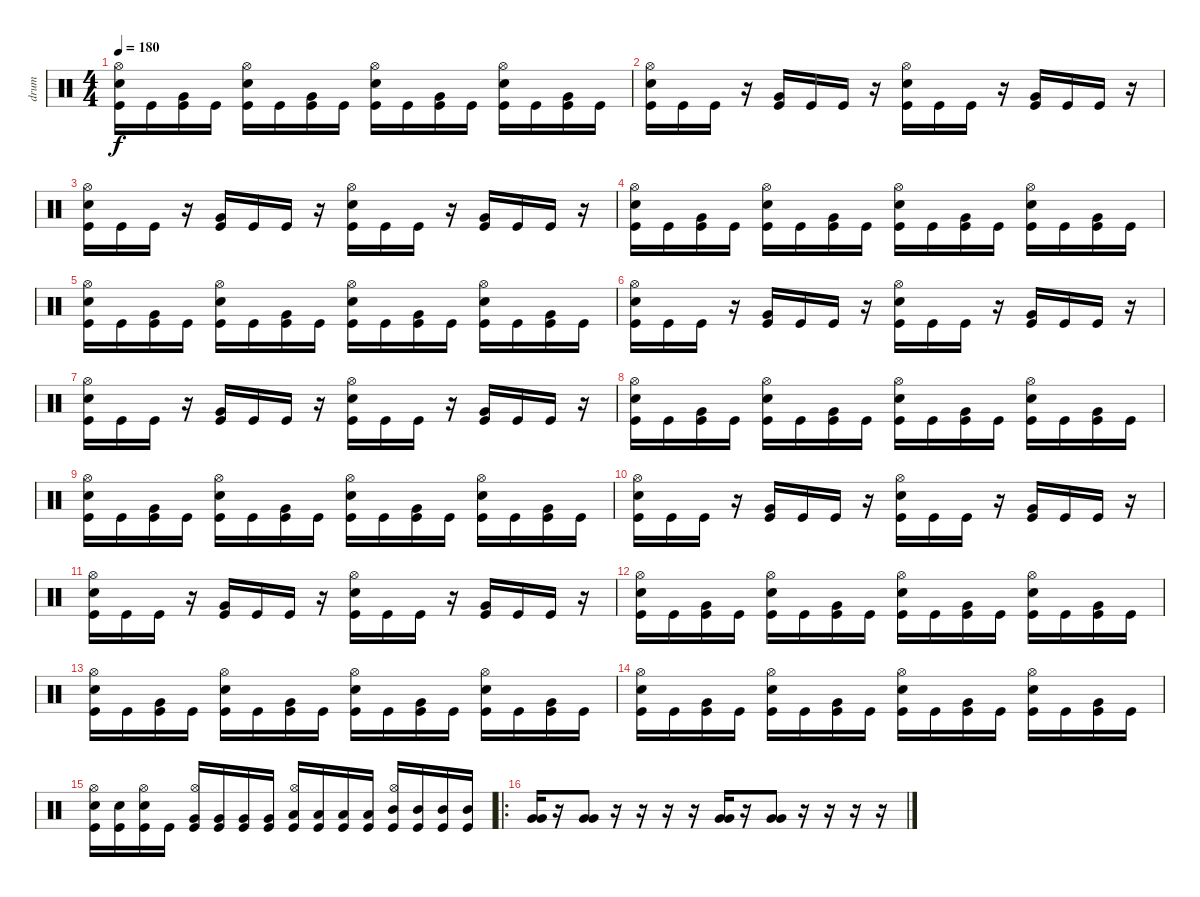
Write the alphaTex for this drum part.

\track ("drum" "drum") {instrument percussion}
\staff {score}
\articulation defaults
\ts (4 4)
\tempo 180
\clef neutral
\ks c
("Kick (hit)" "Snare (hit) 2" "Hi-Hat (open)").16{dy f} "Kick (hit)".16 ("Kick (hit)" "Very Low Tom (hit)").16 "Kick (hit)".16 ("Kick (hit)" "Snare (hit) 2" "Hi-Hat (open)").16 "Kick (hit)".16 ("Kick (hit)" "Very Low Tom (hit)").16 "Kick (hit)".16 ("Kick (hit)" "Snare (hit) 2" "Hi-Hat (open)").16 "Kick (hit)".16 ("Kick (hit)" "Very Low Tom (hit)").16 "Kick (hit)".16 ("Kick (hit)" "Snare (hit) 2" "Hi-Hat (open)").16 "Kick (hit)".16 ("Kick (hit)" "Very Low Tom (hit)").16 "Kick (hit)".16 |
("Kick (hit)" "Snare (hit) 2" "Hi-Hat (open)").16 "Kick (hit)".16 "Kick (hit)".16 r.16 ("Kick (hit)" "Very Low Tom (hit)").16 "Kick (hit)".16 "Kick (hit)".16 r.16 ("Kick (hit)" "Snare (hit) 2" "Hi-Hat (open)").16 "Kick (hit)".16 "Kick (hit)".16 r.16 ("Kick (hit)" "Very Low Tom (hit)").16 "Kick (hit)".16 "Kick (hit)".16 r.16 |
("Kick (hit)" "Snare (hit) 2" "Hi-Hat (open)").16 "Kick (hit)".16 "Kick (hit)".16 r.16 ("Kick (hit)" "Very Low Tom (hit)").16 "Kick (hit)".16 "Kick (hit)".16 r.16 ("Kick (hit)" "Snare (hit) 2" "Hi-Hat (open)").16 "Kick (hit)".16 "Kick (hit)".16 r.16 ("Kick (hit)" "Very Low Tom (hit)").16 "Kick (hit)".16 "Kick (hit)".16 r.16 |
("Kick (hit)" "Snare (hit) 2" "Hi-Hat (open)").16 "Kick (hit)".16 ("Kick (hit)" "Very Low Tom (hit)").16 "Kick (hit)".16 ("Kick (hit)" "Snare (hit) 2" "Hi-Hat (open)").16 "Kick (hit)".16 ("Kick (hit)" "Very Low Tom (hit)").16 "Kick (hit)".16 ("Kick (hit)" "Snare (hit) 2" "Hi-Hat (open)").16 "Kick (hit)".16 ("Kick (hit)" "Very Low Tom (hit)").16 "Kick (hit)".16 ("Kick (hit)" "Snare (hit) 2" "Hi-Hat (open)").16 "Kick (hit)".16 ("Kick (hit)" "Very Low Tom (hit)").16 "Kick (hit)".16 |
("Kick (hit)" "Snare (hit) 2" "Hi-Hat (open)").16 "Kick (hit)".16 ("Kick (hit)" "Very Low Tom (hit)").16 "Kick (hit)".16 ("Kick (hit)" "Snare (hit) 2" "Hi-Hat (open)").16 "Kick (hit)".16 ("Kick (hit)" "Very Low Tom (hit)").16 "Kick (hit)".16 ("Kick (hit)" "Snare (hit) 2" "Hi-Hat (open)").16 "Kick (hit)".16 ("Kick (hit)" "Very Low Tom (hit)").16 "Kick (hit)".16 ("Kick (hit)" "Snare (hit) 2" "Hi-Hat (open)").16 "Kick (hit)".16 ("Kick (hit)" "Very Low Tom (hit)").16 "Kick (hit)".16 |
("Kick (hit)" "Snare (hit) 2" "Hi-Hat (open)").16 "Kick (hit)".16 "Kick (hit)".16 r.16 ("Kick (hit)" "Very Low Tom (hit)").16 "Kick (hit)".16 "Kick (hit)".16 r.16 ("Kick (hit)" "Snare (hit) 2" "Hi-Hat (open)").16 "Kick (hit)".16 "Kick (hit)".16 r.16 ("Kick (hit)" "Very Low Tom (hit)").16 "Kick (hit)".16 "Kick (hit)".16 r.16 |
("Kick (hit)" "Snare (hit) 2" "Hi-Hat (open)").16 "Kick (hit)".16 "Kick (hit)".16 r.16 ("Kick (hit)" "Very Low Tom (hit)").16 "Kick (hit)".16 "Kick (hit)".16 r.16 ("Kick (hit)" "Snare (hit) 2" "Hi-Hat (open)").16 "Kick (hit)".16 "Kick (hit)".16 r.16 ("Kick (hit)" "Very Low Tom (hit)").16 "Kick (hit)".16 "Kick (hit)".16 r.16 |
("Kick (hit)" "Snare (hit) 2" "Hi-Hat (open)").16 "Kick (hit)".16 ("Kick (hit)" "Very Low Tom (hit)").16 "Kick (hit)".16 ("Kick (hit)" "Snare (hit) 2" "Hi-Hat (open)").16 "Kick (hit)".16 ("Kick (hit)" "Very Low Tom (hit)").16 "Kick (hit)".16 ("Kick (hit)" "Snare (hit) 2" "Hi-Hat (open)").16 "Kick (hit)".16 ("Kick (hit)" "Very Low Tom (hit)").16 "Kick (hit)".16 ("Kick (hit)" "Snare (hit) 2" "Hi-Hat (open)").16 "Kick (hit)".16 ("Kick (hit)" "Very Low Tom (hit)").16 "Kick (hit)".16 |
("Kick (hit)" "Snare (hit) 2" "Hi-Hat (open)").16 "Kick (hit)".16 ("Kick (hit)" "Very Low Tom (hit)").16 "Kick (hit)".16 ("Kick (hit)" "Snare (hit) 2" "Hi-Hat (open)").16 "Kick (hit)".16 ("Kick (hit)" "Very Low Tom (hit)").16 "Kick (hit)".16 ("Kick (hit)" "Snare (hit) 2" "Hi-Hat (open)").16 "Kick (hit)".16 ("Kick (hit)" "Very Low Tom (hit)").16 "Kick (hit)".16 ("Kick (hit)" "Snare (hit) 2" "Hi-Hat (open)").16 "Kick (hit)".16 ("Kick (hit)" "Very Low Tom (hit)").16 "Kick (hit)".16 |
("Kick (hit)" "Snare (hit) 2" "Hi-Hat (open)").16 "Kick (hit)".16 "Kick (hit)".16 r.16 ("Kick (hit)" "Very Low Tom (hit)").16 "Kick (hit)".16 "Kick (hit)".16 r.16 ("Kick (hit)" "Snare (hit) 2" "Hi-Hat (open)").16 "Kick (hit)".16 "Kick (hit)".16 r.16 ("Kick (hit)" "Very Low Tom (hit)").16 "Kick (hit)".16 "Kick (hit)".16 r.16 |
("Kick (hit)" "Snare (hit) 2" "Hi-Hat (open)").16 "Kick (hit)".16 "Kick (hit)".16 r.16 ("Kick (hit)" "Very Low Tom (hit)").16 "Kick (hit)".16 "Kick (hit)".16 r.16 ("Kick (hit)" "Snare (hit) 2" "Hi-Hat (open)").16 "Kick (hit)".16 "Kick (hit)".16 r.16 ("Kick (hit)" "Very Low Tom (hit)").16 "Kick (hit)".16 "Kick (hit)".16 r.16 |
("Kick (hit)" "Snare (hit) 2" "Hi-Hat (open)").16 "Kick (hit)".16 ("Kick (hit)" "Very Low Tom (hit)").16 "Kick (hit)".16 ("Kick (hit)" "Snare (hit) 2" "Hi-Hat (open)").16 "Kick (hit)".16 ("Kick (hit)" "Very Low Tom (hit)").16 "Kick (hit)".16 ("Kick (hit)" "Snare (hit) 2" "Hi-Hat (open)").16 "Kick (hit)".16 ("Kick (hit)" "Very Low Tom (hit)").16 "Kick (hit)".16 ("Kick (hit)" "Snare (hit) 2" "Hi-Hat (open)").16 "Kick (hit)".16 ("Kick (hit)" "Very Low Tom (hit)").16 "Kick (hit)".16 |
("Kick (hit)" "Snare (hit) 2" "Hi-Hat (open)").16 "Kick (hit)".16 ("Kick (hit)" "Very Low Tom (hit)").16 "Kick (hit)".16 ("Kick (hit)" "Snare (hit) 2" "Hi-Hat (open)").16 "Kick (hit)".16 ("Kick (hit)" "Very Low Tom (hit)").16 "Kick (hit)".16 ("Kick (hit)" "Snare (hit) 2" "Hi-Hat (open)").16 "Kick (hit)".16 ("Kick (hit)" "Very Low Tom (hit)").16 "Kick (hit)".16 ("Kick (hit)" "Snare (hit) 2" "Hi-Hat (open)").16 "Kick (hit)".16 ("Kick (hit)" "Very Low Tom (hit)").16 "Kick (hit)".16 |
("Kick (hit)" "Snare (hit) 2" "Hi-Hat (open)").16 "Kick (hit)".16 ("Kick (hit)" "Very Low Tom (hit)").16 "Kick (hit)".16 ("Kick (hit)" "Snare (hit) 2" "Hi-Hat (open)").16 "Kick (hit)".16 ("Kick (hit)" "Very Low Tom (hit)").16 "Kick (hit)".16 ("Kick (hit)" "Snare (hit) 2" "Hi-Hat (open)").16 "Kick (hit)".16 ("Kick (hit)" "Very Low Tom (hit)").16 "Kick (hit)".16 ("Kick (hit)" "Snare (hit) 2" "Hi-Hat (open)").16 "Kick (hit)".16 ("Kick (hit)" "Very Low Tom (hit)").16 "Kick (hit)".16 |
("Kick (hit)" "Snare (hit) 2" "Hi-Hat (open)").16 ("Kick (hit)" "Snare (hit) 2").16 ("Kick (hit)" "Snare (hit) 2" "Hi-Hat (open)").16 "Kick (hit)".16 ("Kick (hit)" "Very Low Tom (hit)" "Hi-Hat (open)").16 ("Kick (hit)" "Very Low Tom (hit)").16 ("Kick (hit)" "Very Low Tom (hit)").16 ("Kick (hit)" "Very Low Tom (hit)").16 ("Kick (hit)" "Low Tom (hit)" "Hi-Hat (open)").16 ("Kick (hit)" "Low Tom (hit)").16 ("Kick (hit)" "Low Tom (hit)").16 ("Kick (hit)" "Low Tom (hit)").16 ("Kick (hit)" "Mid Tom (hit)" "Hi-Hat (open)").16 ("Kick (hit)" "Mid Tom (hit)").16 ("Kick (hit)" "Mid Tom (hit)").16 ("Kick (hit)" "Mid Tom (hit)").16 |
\ro
("Very Low Tom (hit)" "Very Low Tom (hit)").16 r.16 ("Very Low Tom (hit)" "Very Low Tom (hit)").8 r.16 r.16 r.16 r.16 ("Very Low Tom (hit)" "Very Low Tom (hit)").16 r.16 ("Very Low Tom (hit)" "Very Low Tom (hit)").8 r.16 r.16 r.16 r.16
